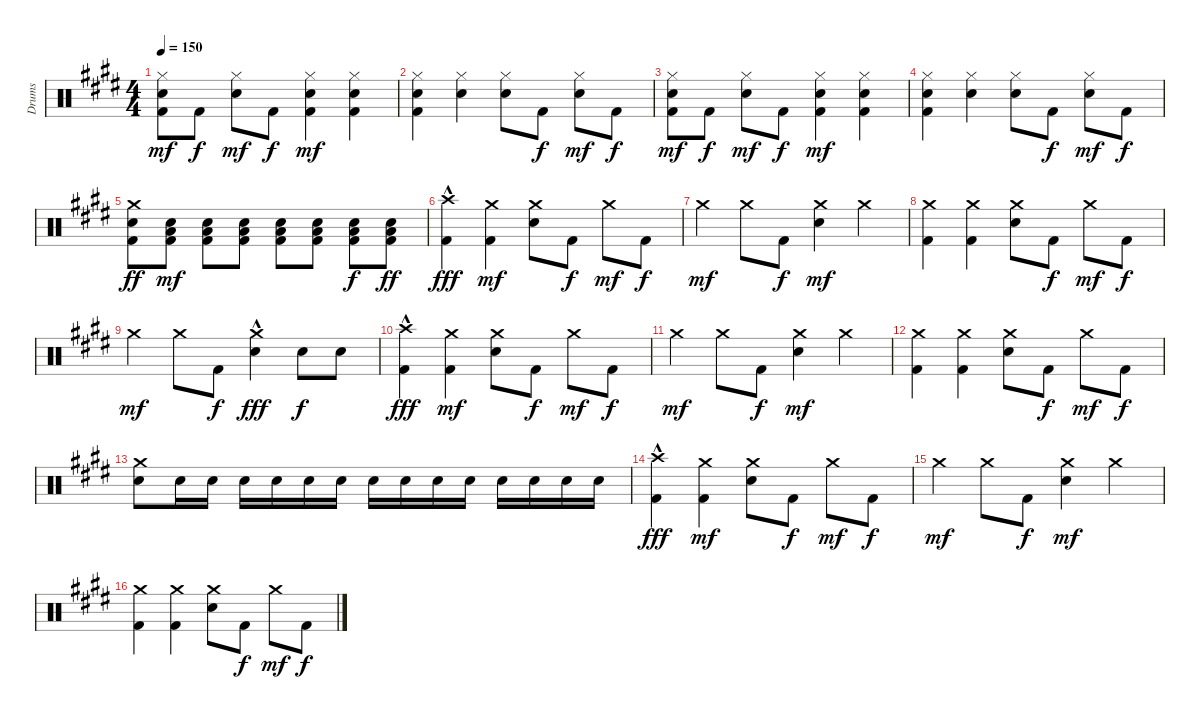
\track ("Drums" "Drums") {instrument percussion}
\staff {score}
\articulation defaults
\ts (4 4)
\tempo 150
\clef neutral
\ks e
("Hi-Hat (closed)" "Electric Snare (hit)" "Kick (hit) 2").8{dy mf} "Kick (hit) 2".8{dy f} ("Hi-Hat (closed)" "Electric Snare (hit)").8{dy mf} "Kick (hit) 2".8{dy f} ("Hi-Hat (closed)" "Electric Snare (hit)" "Kick (hit) 2").4{dy mf} ("Hi-Hat (closed)" "Electric Snare (hit)" "Kick (hit) 2").4 |
("Hi-Hat (closed)" "Electric Snare (hit)" "Kick (hit) 2").4 ("Hi-Hat (closed)" "Electric Snare (hit)").4 ("Hi-Hat (closed)" "Electric Snare (hit)").8 "Kick (hit) 2".8{dy f} ("Hi-Hat (closed)" "Electric Snare (hit)").8{dy mf} "Kick (hit) 2".8{dy f} |
("Hi-Hat (closed)" "Electric Snare (hit)" "Kick (hit) 2").8{dy mf} "Kick (hit) 2".8{dy f} ("Hi-Hat (closed)" "Electric Snare (hit)").8{dy mf} "Kick (hit) 2".8{dy f} ("Hi-Hat (closed)" "Electric Snare (hit)" "Kick (hit) 2").4{dy mf} ("Hi-Hat (closed)" "Electric Snare (hit)" "Kick (hit) 2").4 |
("Hi-Hat (closed)" "Electric Snare (hit)" "Kick (hit) 2").4 ("Hi-Hat (closed)" "Electric Snare (hit)").4 ("Hi-Hat (closed)" "Electric Snare (hit)").8 "Kick (hit) 2".8{dy f} ("Hi-Hat (closed)" "Electric Snare (hit)").8{dy mf} "Kick (hit) 2".8{dy f} |
("Crash medium (hit)" "Electric Snare (hit)" "Kick (hit) 2").8{dy ff} ("Electric Snare (hit)" "Low Floor Tom (hit)" "Kick (hit) 2").8{dy mf} ("Electric Snare (hit)" "Low Floor Tom (hit)" "Kick (hit) 2").8 ("Electric Snare (hit)" "Low Floor Tom (hit)" "Kick (hit) 2").8 ("Electric Snare (hit)" "Low Floor Tom (hit)" "Kick (hit) 2").8 ("Electric Snare (hit)" "Low Floor Tom (hit)" "Kick (hit) 2").8 ("Electric Snare (hit)" "Low Floor Tom (hit)" "Kick (hit) 2").8{dy f} ("Electric Snare (hit)" "Low Floor Tom (hit)" "Kick (hit) 2").8{dy ff} |
("Crash high (hit)"{hac} "Kick (hit) 2").4{dy fff} ("Crash medium (hit)" "Kick (hit) 2").4{dy mf} ("Crash medium (hit)" "Electric Snare (hit)").8 "Kick (hit) 2".8{dy f} "Crash medium (hit)".8{dy mf} "Kick (hit) 2".8{dy f} |
"Crash medium (hit)".4{dy mf} "Crash medium (hit)".8 "Kick (hit) 2".8{dy f} ("Crash medium (hit)" "Electric Snare (hit)").4{dy mf} "Crash medium (hit)".4 |
("Crash medium (hit)" "Kick (hit) 2").4 ("Crash medium (hit)" "Kick (hit) 2").4 ("Crash medium (hit)" "Electric Snare (hit)").8 "Kick (hit) 2".8{dy f} "Crash medium (hit)".8{dy mf} "Kick (hit) 2".8{dy f} |
"Crash medium (hit)".4{dy mf} "Crash medium (hit)".8 "Kick (hit) 2".8{dy f} ("Crash medium (hit)"{hac} "Electric Snare (hit)").4{dy fff} "Electric Snare (hit)".8{dy f} "Electric Snare (hit)".8 |
("Crash high (hit)"{hac} "Kick (hit) 2").4{dy fff} ("Crash medium (hit)" "Kick (hit) 2").4{dy mf} ("Crash medium (hit)" "Electric Snare (hit)").8 "Kick (hit) 2".8{dy f} "Crash medium (hit)".8{dy mf} "Kick (hit) 2".8{dy f} |
"Crash medium (hit)".4{dy mf} "Crash medium (hit)".8 "Kick (hit) 2".8{dy f} ("Crash medium (hit)" "Electric Snare (hit)").4{dy mf} "Crash medium (hit)".4 |
("Crash medium (hit)" "Kick (hit) 2").4 ("Crash medium (hit)" "Kick (hit) 2").4 ("Crash medium (hit)" "Electric Snare (hit)").8 "Kick (hit) 2".8{dy f} "Crash medium (hit)".8{dy mf} "Kick (hit) 2".8{dy f} |
("Crash medium (hit)" "Electric Snare (hit)").8 "Electric Snare (hit)".16{volume 0} "Electric Snare (hit)".16{volume 13} "Electric Snare (hit)".16 "Electric Snare (hit)".16 "Electric Snare (hit)".16 "Electric Snare (hit)".16 "Electric Snare (hit)".16 "Electric Snare (hit)".16 "Electric Snare (hit)".16 "Electric Snare (hit)".16 "Electric Snare (hit)".16 "Electric Snare (hit)".16 "Electric Snare (hit)".16 "Electric Snare (hit)".16 |
("Crash high (hit)"{hac} "Kick (hit) 2").4{dy fff} ("Crash medium (hit)" "Kick (hit) 2").4{dy mf} ("Crash medium (hit)" "Electric Snare (hit)").8 "Kick (hit) 2".8{dy f} "Crash medium (hit)".8{dy mf} "Kick (hit) 2".8{dy f} |
"Crash medium (hit)".4{dy mf} "Crash medium (hit)".8 "Kick (hit) 2".8{dy f} ("Crash medium (hit)" "Electric Snare (hit)").4{dy mf} "Crash medium (hit)".4 |
("Crash medium (hit)" "Kick (hit) 2").4 ("Crash medium (hit)" "Kick (hit) 2").4 ("Crash medium (hit)" "Electric Snare (hit)").8 "Kick (hit) 2".8{dy f} "Crash medium (hit)".8{dy mf} "Kick (hit) 2".8{dy f}
